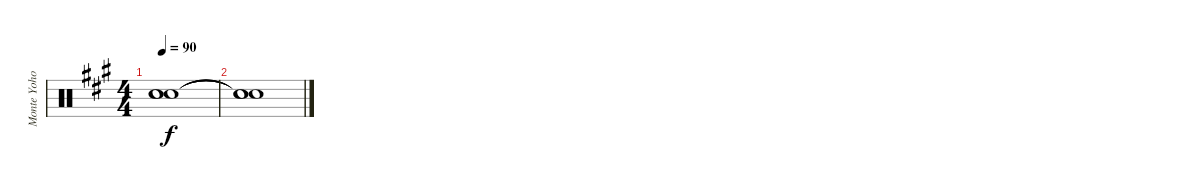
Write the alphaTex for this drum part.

\track ("Monte Yoho Drums" "Monte Yoho") {instrument percussion}
\staff {score}
\articulation defaults
\ts (4 4)
\tempo 90
\clef neutral
\ks a
("Snare (hit)"{t} "Snare (hit)"{t} "Snare (hit)"{t}).1{dy f} |
("Snare (hit)"{t} "Snare (hit)"{t} "Snare (hit)"{t}).1
